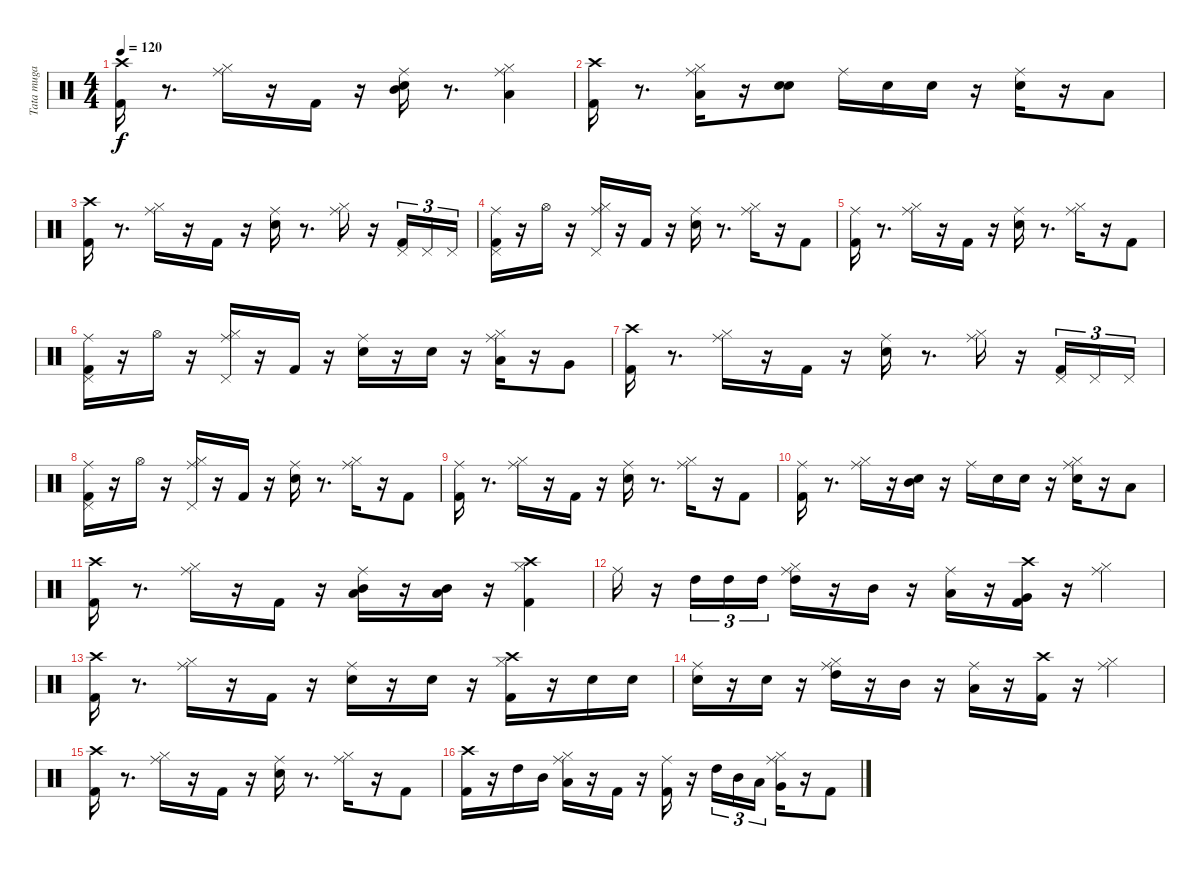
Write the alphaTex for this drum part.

\track ("Tata muga" "Tata muga") {instrument percussion}
\staff {score}
\articulation defaults
\ts (4 4)
\tempo 120
\clef neutral
\ks c
("Crash high (hit)" "Kick (hit) 2").16{dy f} r.8{d} ("Ride (middle)" "Hi-Hat (closed)").16 r.16 "Kick (hit) 2".16 r.16 ("Ride (middle)" "Mid Tom (hit)" "Electric Snare (hit)").16 r.8{d} ("Hi-Hat (closed)" "Ride (middle)" "Low Tom (hit)").4 |
("Crash high (hit)" "Kick (hit) 2").16 r.8{d} ("Low Tom (hit)" "Hi-Hat (closed)" "Ride (middle)").16 r.16 ("Electric Snare (hit)" "Electric Snare (hit)").8 "Ride (middle)".16 "Electric Snare (hit)".16 "Electric Snare (hit)".16 r.16 ("Ride (middle)" "Electric Snare (hit)").16 r.16 "Low Tom (hit)".8 |
("Crash high (hit)" "Kick (hit) 2").16 r.8{d} ("Ride (middle)" "Hi-Hat (closed)").16 r.16 "Kick (hit) 2".16 r.16 ("Electric Snare (hit)" "Ride (middle)").16 r.8{d} ("Hi-Hat (closed)" "Ride (middle)").16 r.16 ("Pedal Hi-Hat (hit)" "Kick (hit) 2").16{tu (3 2)} "Pedal Hi-Hat (hit)".16{tu (3 2)} "Pedal Hi-Hat (hit)".16{tu (3 2)} |
("Pedal Hi-Hat (hit)" "Kick (hit) 2" "Ride (middle)").16 r.16 "Hi-Hat (open)".16 r.16 ("Pedal Hi-Hat (hit)" "Hi-Hat (closed)" "Ride (middle)").16 r.16 "Kick (hit) 2".16 r.16 ("Electric Snare (hit)" "Ride (middle)").16 r.8{d} ("Hi-Hat (closed)" "Ride (middle)").16 r.16 "Kick (hit) 2".8 |
("Kick (hit) 2" "Ride (middle)").16 r.8{d} ("Hi-Hat (closed)" "Ride (middle)").16 r.16 "Kick (hit) 2".16 r.16 ("Electric Snare (hit)" "Ride (middle)").16 r.8{d} ("Ride (middle)" "Hi-Hat (closed)").16 r.16 "Kick (hit) 2".8 |
("Pedal Hi-Hat (hit)" "Ride (middle)" "Kick (hit) 2").16 r.16 "Hi-Hat (open)".16 r.16 ("Pedal Hi-Hat (hit)" "Ride (middle)" "Hi-Hat (closed)").16 r.16 "Kick (hit) 2".16 r.16 ("Ride (middle)" "Electric Snare (hit)").16 r.16 "Electric Snare (hit)".16 r.16 ("Ride (middle)" "Hi-Hat (closed)" "Low Tom (hit)").16 r.16 "Very Low Tom (hit)".8 |
("Crash high (hit)" "Kick (hit) 2").16 r.8{d} ("Ride (middle)" "Hi-Hat (closed)").16 r.16 "Kick (hit) 2".16 r.16 ("Ride (middle)" "Electric Snare (hit)").16 r.8{d} ("Ride (middle)" "Hi-Hat (closed)").16 r.16 ("Pedal Hi-Hat (hit)" "Kick (hit) 2").16{tu (3 2)} "Pedal Hi-Hat (hit)".16{tu (3 2)} "Pedal Hi-Hat (hit)".16{tu (3 2)} |
("Pedal Hi-Hat (hit)" "Kick (hit) 2" "Ride (middle)").16 r.16 "Hi-Hat (open)".16 r.16 ("Ride (middle)" "Pedal Hi-Hat (hit)" "Hi-Hat (closed)").16 r.16 "Kick (hit) 2".16 r.16 ("Ride (middle)" "Electric Snare (hit)").16 r.8{d} ("Ride (middle)" "Hi-Hat (closed)").16 r.16 "Kick (hit) 2".8 |
("Ride (middle)" "Kick (hit) 2").16 r.8{d} ("Ride (middle)" "Hi-Hat (closed)").16 r.16 "Kick (hit) 2".16 r.16 ("Ride (middle)" "Electric Snare (hit)").16 r.8{d} ("Hi-Hat (closed)" "Ride (middle)").16 r.16 "Kick (hit) 2".8 |
("Ride (middle)" "Kick (hit) 2").16 r.8{d} ("Ride (middle)" "Hi-Hat (closed)").16 r.16 ("Mid Tom (hit)" "Electric Snare (hit)").16 r.16 "Ride (middle)".16 "Electric Snare (hit)".16 "Electric Snare (hit)".16 r.16 ("Ride (middle)" "Hi-Hat (closed)" "Electric Snare (hit)").16 r.16 "Low Tom (hit)".8 |
("Crash high (hit)" "Kick (hit) 2").16 r.8{d} ("Ride (middle)" "Hi-Hat (closed)").16 r.16 "Kick (hit) 2".16 r.16 ("Low Tom (hit)" "Mid Tom (hit)" "Ride (middle)").16 r.16 ("Low Tom (hit)" "Mid Tom (hit)").16 r.16 ("Hi-Hat (closed)" "Crash high (hit)" "Kick (hit) 2").4 |
"Ride (middle)".16 r.16 "High Tom (hit)".16{tu (3 2)} "High Tom (hit)".16{tu (3 2)} "High Tom (hit)".16{tu (3 2)} ("Hi-Hat (closed)" "Ride (middle)" "High Tom (hit)").16 r.16 "Mid Tom (hit)".16 r.16 ("Ride (middle)" "Low Tom (hit)").16 r.16 ("Crash high (hit)" "Kick (hit) 2" "Very Low Tom (hit)").16 r.16 ("Ride (middle)" "Hi-Hat (closed)").4 |
("Kick (hit) 2" "Crash high (hit)").16 r.8{d} ("Hi-Hat (closed)" "Ride (middle)").16 r.16 "Kick (hit) 2".16 r.16 ("Ride (middle)" "Electric Snare (hit)").16 r.16 "Electric Snare (hit)".16 r.16 ("Hi-Hat (closed)" "Crash high (hit)" "Kick (hit) 2").16 r.16 "Electric Snare (hit)".16 "Electric Snare (hit)".16 |
("Ride (middle)" "Electric Snare (hit)").16 r.16 "Electric Snare (hit)".16 r.16 ("Hi-Hat (closed)" "Ride (middle)" "High Tom (hit)").16 r.16 "Mid Tom (hit)".16 r.16 ("Ride (middle)" "Low Tom (hit)").16 r.16 ("Crash high (hit)" "Kick (hit) 2").16 r.16 ("Hi-Hat (closed)" "Ride (middle)").4 |
("Crash high (hit)" "Kick (hit) 2").16 r.8{d} ("Ride (middle)" "Hi-Hat (closed)").16 r.16 "Kick (hit) 2".16 r.16 ("Ride (middle)" "Electric Snare (hit)").16 r.8{d} ("Ride (middle)" "Hi-Hat (closed)").16 r.16 "Kick (hit) 2".8 |
("Crash high (hit)" "Kick (hit) 2").16 r.16 "High Tom (hit)".16 "Mid Tom (hit)".16 ("Hi-Hat (closed)" "Ride (middle)" "Low Tom (hit)").16 r.16 "Kick (hit) 2".16 r.16 ("Ride (middle)" "Kick (hit) 2").16 r.16 "High Tom (hit)".16{tu (3 2)} "Mid Tom (hit)".16{tu (3 2)} "Low Tom (hit)".16{tu (3 2)} ("Hi-Hat (closed)" "Ride (middle)" "Very Low Tom (hit)").16 r.16 "Kick (hit) 2".8
